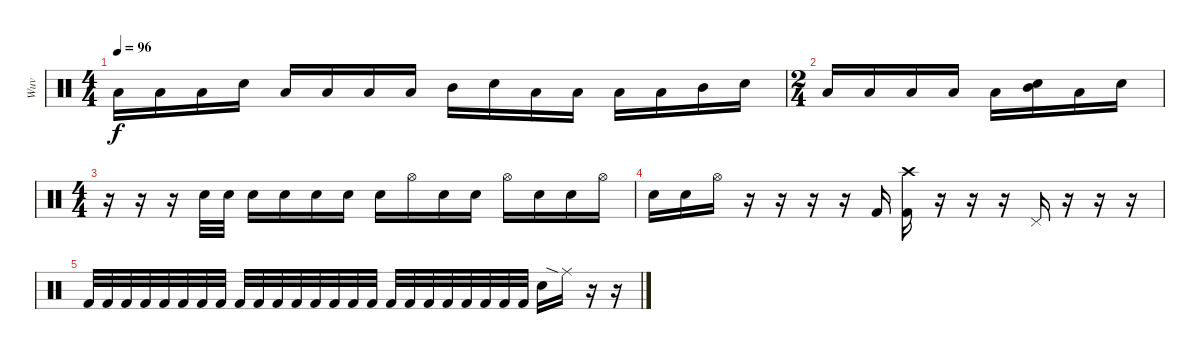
\track ("Wuv" "Wuv") {instrument percussion}
\staff {score}
\articulation defaults
\ts (4 4)
\tempo 96
\clef neutral
\ks c "Low Floor Tom (hit)".16{dy f} "Low Floor Tom (hit)".16 "Low Tom (hit)".16 "Snare (hit) 2".16 "Low Floor Tom (hit)".16 "Low Floor Tom (hit)".16 "Low Tom (hit)".16 "Low Tom (hit)".16 "Mid Tom (hit)".16 "Snare (hit) 2".16 "Low Floor Tom (hit)".16 "Low Floor Tom (hit)".16 "Low Tom (hit)".16 "Low Tom (hit)".16 "Mid Tom (hit)".16 "Snare (hit) 2".16
|
\ts (2 4)
"Low Floor Tom (hit)".16 "Low Floor Tom (hit)".16 "Low Tom (hit)".16 "Low Tom (hit)".16 "Low Tom (hit)".16 ("Snare (hit) 2" "Mid Tom (hit)").16 "Low Tom (hit)".16 "Snare (hit) 2".16 |
\ts (4 4)
r.16 r.16 r.16 "Snare (hit) 2".32 "Snare (hit) 2".32 "Snare (hit) 2".16 "Snare (hit) 2".16 "Snare (hit) 2".16 "Snare (hit) 2".16 "Snare (hit) 2".16 "Hi-Hat (open)".16 "Snare (hit) 2".16 "Snare (hit) 2".16 "Hi-Hat (open)".16 "Snare (hit) 2".16 "Snare (hit) 2".16 "Hi-Hat (open)".16 |
"Snare (hit) 2".16 "Snare (hit) 2".16 "Hi-Hat (open)".16 r.16 r.16 r.16 r.16 "Kick (hit) 2".16 ("Crash high (hit)" "Kick (hit) 2").16 r.16 r.16 r.16 "Pedal Hi-Hat (hit)".16 r.16 r.16 r.16 |
"Kick (hit) 2".32 "Kick (hit) 2".32 "Kick (hit) 2".32 "Kick (hit) 2".32 "Kick (hit) 2".32 "Kick (hit) 2".32 "Kick (hit) 2".32 "Kick (hit) 2".32 "Kick (hit) 2".32 "Kick (hit) 2".32 "Kick (hit) 2".32 "Kick (hit) 2".32 "Kick (hit) 2".32 "Kick (hit) 2".32 "Kick (hit) 2".32 "Kick (hit) 2".32 "Kick (hit) 2".32 "Kick (hit) 2".32 "Kick (hit) 2".32 "Kick (hit) 2".32 "Kick (hit) 2".32 "Kick (hit) 2".32 "Kick (hit) 2".32 "Kick (hit) 2".32 "Snare (hit) 2".16 "Ride (middle)"{sia}.16 r.16 r.16
